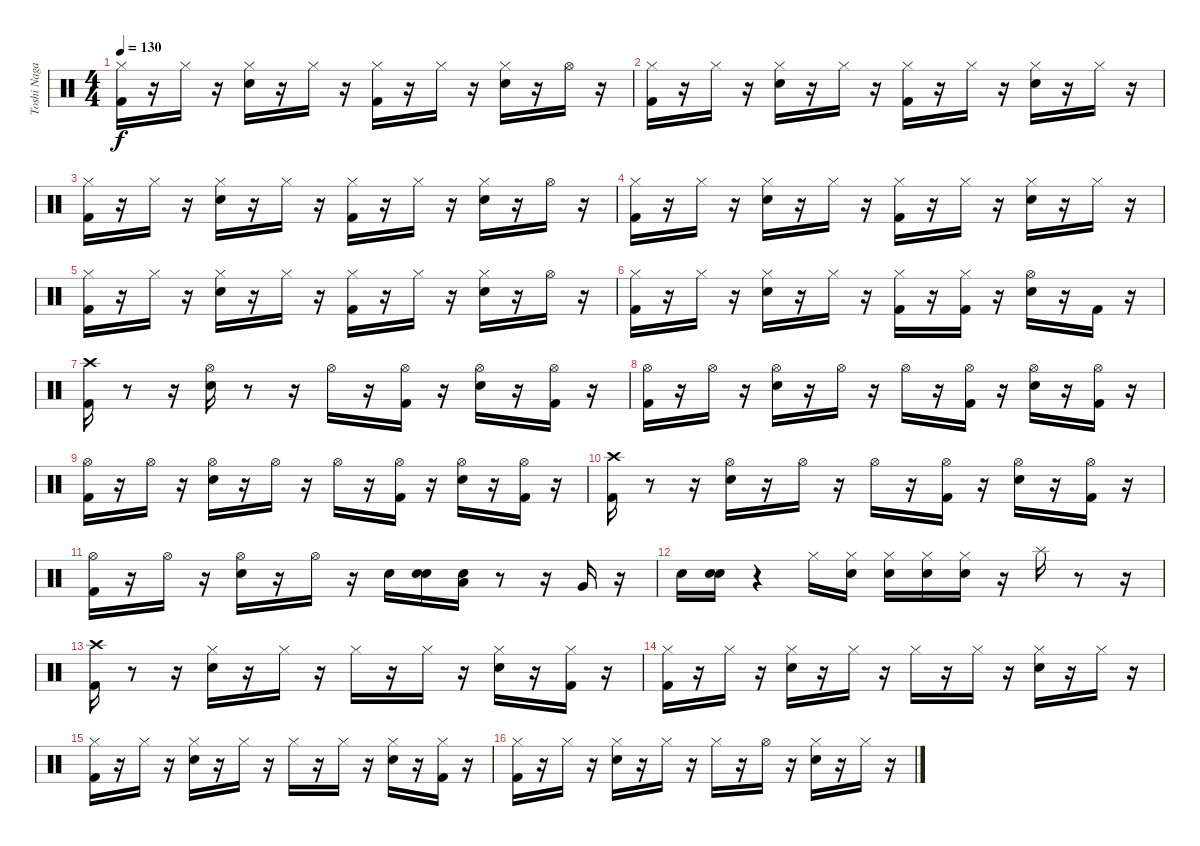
\track ("Toshi Nagai" "Toshi Naga") {instrument percussion}
\staff {score}
\articulation defaults
\ts (4 4)
\tempo 130
\clef neutral
\ks c
("Kick (hit) 2" "Hi-Hat (closed)").16{dy f} r.16 "Hi-Hat (closed)".16 r.16 ("Electric Snare (hit)" "Hi-Hat (closed)").16 r.16 "Hi-Hat (closed)".16 r.16 ("Kick (hit) 2" "Hi-Hat (closed)").16 r.16 "Hi-Hat (closed)".16 r.16 ("Electric Snare (hit)" "Hi-Hat (closed)").16 r.16 "Hi-Hat (open)".16 r.16 |
("Hi-Hat (closed)" "Kick (hit) 2").16 r.16 "Hi-Hat (closed)".16 r.16 ("Hi-Hat (closed)" "Electric Snare (hit)").16 r.16 "Hi-Hat (closed)".16 r.16 ("Hi-Hat (closed)" "Kick (hit) 2").16 r.16 "Hi-Hat (closed)".16 r.16 ("Hi-Hat (closed)" "Electric Snare (hit)").16 r.16 "Hi-Hat (closed)".16 r.16 |
("Kick (hit) 2" "Hi-Hat (closed)").16 r.16 "Hi-Hat (closed)".16 r.16 ("Electric Snare (hit)" "Hi-Hat (closed)").16 r.16 "Hi-Hat (closed)".16 r.16 ("Kick (hit) 2" "Hi-Hat (closed)").16 r.16 "Hi-Hat (closed)".16 r.16 ("Electric Snare (hit)" "Hi-Hat (closed)").16 r.16 "Hi-Hat (open)".16 r.16 |
("Kick (hit) 2" "Hi-Hat (closed)").16 r.16 "Hi-Hat (closed)".16 r.16 ("Electric Snare (hit)" "Hi-Hat (closed)").16 r.16 "Hi-Hat (closed)".16 r.16 ("Kick (hit) 2" "Hi-Hat (closed)").16 r.16 "Hi-Hat (closed)".16 r.16 ("Electric Snare (hit)" "Hi-Hat (closed)").16 r.16 "Hi-Hat (closed)".16 r.16 |
("Kick (hit) 2" "Hi-Hat (closed)").16 r.16 "Hi-Hat (closed)".16 r.16 ("Electric Snare (hit)" "Hi-Hat (closed)").16 r.16 "Hi-Hat (closed)".16 r.16 ("Kick (hit) 2" "Hi-Hat (closed)").16 r.16 "Hi-Hat (closed)".16 r.16 ("Electric Snare (hit)" "Hi-Hat (closed)").16 r.16 "Hi-Hat (open)".16 r.16 |
("Kick (hit) 2" "Hi-Hat (closed)").16 r.16 "Hi-Hat (closed)".16 r.16 ("Electric Snare (hit)" "Hi-Hat (closed)").16 r.16 "Hi-Hat (closed)".16 r.16 ("Kick (hit) 2" "Hi-Hat (closed)").16 r.16 ("Kick (hit) 2" "Hi-Hat (closed)").16 r.16 ("Electric Snare (hit)" "Hi-Hat (open)").16 r.16 "Kick (hit) 2".16 r.16 |
("Kick (hit) 2" "Crash high (hit)").16 r.8 r.16 ("Electric Snare (hit)" "Hi-Hat (open)").16 r.8 r.16 "Hi-Hat (open)".16 r.16 ("Kick (hit) 2" "Hi-Hat (open)").16 r.16 ("Electric Snare (hit)" "Hi-Hat (open)").16 r.16 ("Kick (hit) 2" "Hi-Hat (open)").16 r.16 |
("Kick (hit) 2" "Hi-Hat (open)").16 r.16 "Hi-Hat (open)".16 r.16 ("Electric Snare (hit)" "Hi-Hat (open)").16 r.16 "Hi-Hat (open)".16 r.16 "Hi-Hat (open)".16 r.16 ("Kick (hit) 2" "Hi-Hat (open)").16 r.16 ("Electric Snare (hit)" "Hi-Hat (open)").16 r.16 ("Kick (hit) 2" "Hi-Hat (open)").16 r.16 |
("Kick (hit) 2" "Hi-Hat (open)").16 r.16 "Hi-Hat (open)".16 r.16 ("Electric Snare (hit)" "Hi-Hat (open)").16 r.16 "Hi-Hat (open)".16 r.16 "Hi-Hat (open)".16 r.16 ("Kick (hit) 2" "Hi-Hat (open)").16 r.16 ("Electric Snare (hit)" "Hi-Hat (open)").16 r.16 ("Kick (hit) 2" "Hi-Hat (open)").16 r.16 |
("Kick (hit) 2" "Crash high (hit)").16 r.8 r.16 ("Electric Snare (hit)" "Hi-Hat (open)").16 r.16 "Hi-Hat (open)".16 r.16 "Hi-Hat (open)".16 r.16 ("Kick (hit) 2" "Hi-Hat (open)").16 r.16 ("Electric Snare (hit)" "Hi-Hat (open)").16 r.16 ("Kick (hit) 2" "Hi-Hat (open)").16 r.16 |
("Kick (hit) 2" "Hi-Hat (open)").16 r.16 "Hi-Hat (open)".16 r.16 ("Electric Snare (hit)" "Hi-Hat (open)").16 r.16 "Hi-Hat (open)".16 r.16 "Electric Snare (hit)".16 ("Snare (hit)" "Electric Snare (hit)").16 ("Snare (hit)" "Low Tom (hit)").16 r.8 r.16 "Very Low Tom (hit)".16 r.16 |
"Electric Snare (hit)".16 ("Snare (hit)" "Electric Snare (hit)").16 r.4 "Hi-Hat (closed)".16 ("Snare (hit)" "Hi-Hat (closed)").16 ("Snare (hit)" "Hi-Hat (closed)").16 ("Snare (hit)" "Hi-Hat (closed)").16 ("Snare (hit)" "Hi-Hat (closed)").16 r.16 "Splash (hit)".16 r.8 r.16 |
("Crash high (hit)" "Kick (hit) 2").16 r.8 r.16 ("Electric Snare (hit)" "Hi-Hat (closed)").16 r.16 "Hi-Hat (closed)".16 r.16 "Hi-Hat (closed)".16 r.16 "Hi-Hat (closed)".16 r.16 ("Electric Snare (hit)" "Hi-Hat (closed)").16 r.16 ("Kick (hit) 2" "Hi-Hat (closed)").16 r.16 |
("Kick (hit) 2" "Hi-Hat (closed)").16 r.16 "Hi-Hat (closed)".16 r.16 ("Electric Snare (hit)" "Hi-Hat (closed)").16 r.16 "Hi-Hat (closed)".16 r.16 "Hi-Hat (closed)".16 r.16 "Hi-Hat (closed)".16 r.16 ("Electric Snare (hit)" "Hi-Hat (closed)").16 r.16 "Hi-Hat (closed)".16 r.16 |
("Kick (hit) 2" "Hi-Hat (closed)").16 r.16 "Hi-Hat (closed)".16 r.16 ("Electric Snare (hit)" "Hi-Hat (closed)").16 r.16 "Hi-Hat (closed)".16 r.16 "Hi-Hat (closed)".16 r.16 "Hi-Hat (closed)".16 r.16 ("Electric Snare (hit)" "Hi-Hat (closed)").16 r.16 ("Kick (hit) 2" "Hi-Hat (closed)").16 r.16 |
("Kick (hit) 2" "Hi-Hat (closed)").16 r.16 "Hi-Hat (closed)".16 r.16 ("Electric Snare (hit)" "Hi-Hat (closed)").16 r.16 "Hi-Hat (closed)".16 r.16 "Hi-Hat (closed)".16 r.16 "Hi-Hat (open)".16 r.16 ("Electric Snare (hit)" "Hi-Hat (closed)").16 r.16 "Hi-Hat (closed)".16 r.16
